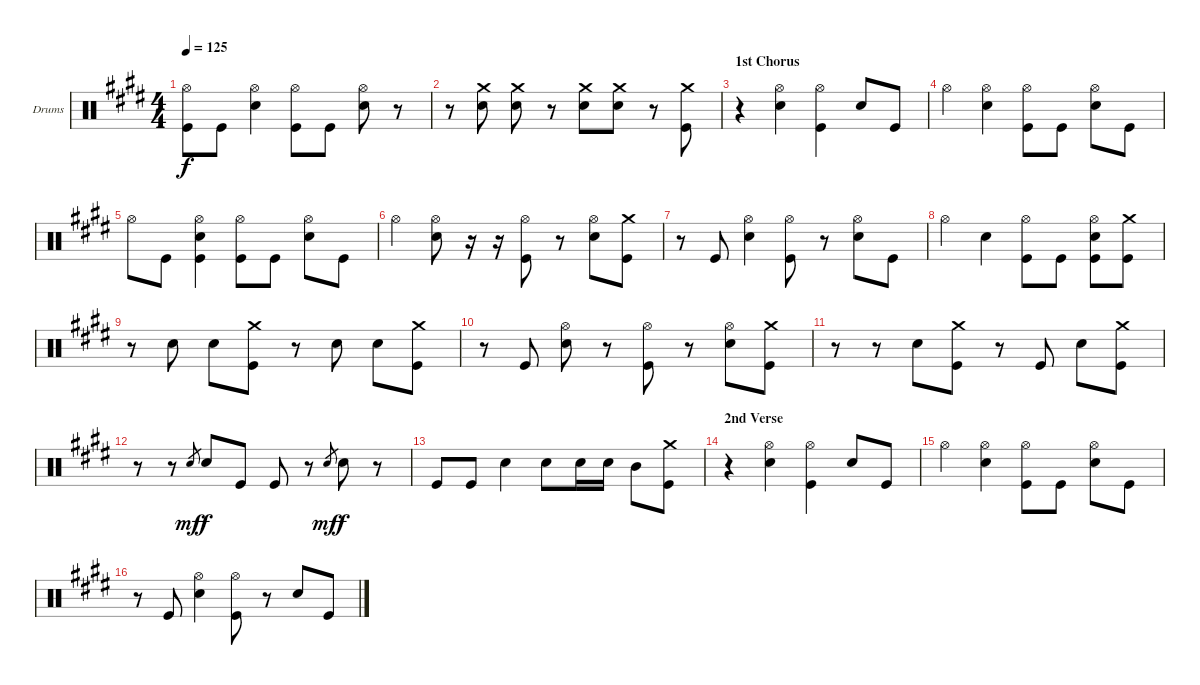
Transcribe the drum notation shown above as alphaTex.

\bracketExtendMode groupsimilarinstruments
\firstSystemTrackNameOrientation horizontal
\otherSystemsTrackNameOrientation horizontal
\track ("Drumkit" "Drums") {instrument percussion}
\staff {score}
\articulation defaults
\ts (4 4)
\tempo 125
\clef neutral
\ks e
("Hi-Hat (open)" "Kick (hit)"{t}).8{dy f} "Kick (hit)".8 ("Hi-Hat (open)" "Snare (hit) 2").4 ("Hi-Hat (open)" "Kick (hit)").8 "Kick (hit)".8 ("Hi-Hat (open)" "Snare (hit) 2").8 r.8 |
r.8 ("Crash medium (hit)" "Snare (hit) 2").8 ("Crash medium (hit)" "Snare (hit) 2").8 r.8 ("Crash medium (hit)" "Snare (hit) 2").8 ("Crash medium (hit)" "Snare (hit) 2").8 r.8 ("Crash medium (hit)" "Kick (hit)").8 |
\section ("" "1st Chorus")
r.4 ("Hi-Hat (open)" "Snare (hit) 2").4 ("Hi-Hat (open)" "Kick (hit)").4 "Snare (hit) 2".8 "Kick (hit)".8 |
"Hi-Hat (open)".4 ("Hi-Hat (open)" "Snare (hit) 2").4 ("Hi-Hat (open)" "Kick (hit)").8 "Kick (hit)".8 ("Hi-Hat (open)" "Snare (hit) 2").8 "Kick (hit)".8 |
"Hi-Hat (open)".8 "Kick (hit)".8 ("Hi-Hat (open)" "Snare (hit) 2" "Kick (hit)").4 ("Hi-Hat (open)" "Kick (hit)").8 "Kick (hit)".8 ("Hi-Hat (open)" "Snare (hit) 2").8 "Kick (hit)".8 |
"Hi-Hat (open)".4 ("Hi-Hat (open)" "Snare (hit) 2").8 r.16 r.16 ("Hi-Hat (open)" "Kick (hit)").8 r.8 ("Hi-Hat (open)" "Snare (hit) 2").8 ("Crash medium (hit)" "Kick (hit)").8 |
r.8 "Kick (hit)".8 ("Hi-Hat (open)" "Snare (hit) 2").4 ("Hi-Hat (open)" "Kick (hit)").8 r.8 ("Hi-Hat (open)" "Snare (hit) 2").8 "Kick (hit)".8 |
"Hi-Hat (open)".4 "Snare (hit) 2".4 ("Hi-Hat (open)" "Kick (hit)").8 "Kick (hit)".8 ("Hi-Hat (open)" "Snare (hit) 2" "Kick (hit)").8 ("Crash medium (hit)" "Kick (hit)").8 |
r.8 "Snare (hit) 2".8 "Snare (hit) 2".8 ("Crash medium (hit)" "Kick (hit)").8 r.8 "Snare (hit) 2".8 "Snare (hit) 2".8 ("Crash medium (hit)" "Kick (hit)").8 |
r.8 "Kick (hit)".8 ("Hi-Hat (open)" "Snare (hit) 2").8 r.8 ("Hi-Hat (open)" "Kick (hit)").8 r.8 ("Hi-Hat (open)" "Snare (hit) 2").8 ("Crash medium (hit)" "Kick (hit)").8 |
r.8 r.8 "Snare (hit) 2".8 ("Crash medium (hit)" "Kick (hit)").8 r.8 "Kick (hit)".8 "Snare (hit) 2".8 ("Crash medium (hit)" "Kick (hit)").8 |
r.8 r.8 "Snare (hit) 2".8{gr dy mf} "Snare (hit) 2".8{dy f} "Kick (hit)".8 "Kick (hit)".8 r.8 "Snare (hit) 2".8{gr dy mf} "Snare (hit) 2".8{dy f} r.8 |
"Kick (hit)".8 "Kick (hit)".8 "Snare (hit) 2".4 "Snare (hit) 2".8 "Snare (hit) 2".16 "Snare (hit) 2".16 "Mid Tom (hit)".8 ("Crash medium (hit)" "Kick (hit)").8 |
\section ("" "2nd Verse")
r.4 ("Hi-Hat (open)" "Snare (hit) 2").4 ("Hi-Hat (open)" "Kick (hit)").4 "Snare (hit) 2".8 "Kick (hit)".8 |
"Hi-Hat (open)".4 ("Hi-Hat (open)" "Snare (hit) 2").4 ("Hi-Hat (open)" "Kick (hit)").8 "Kick (hit)".8 ("Hi-Hat (open)" "Snare (hit) 2").8 "Kick (hit)".8 |
r.8 "Kick (hit)".8 ("Hi-Hat (open)" "Snare (hit) 2").4 ("Hi-Hat (open)" "Kick (hit)").8 r.8 "Snare (hit) 2".8 "Kick (hit)".8
